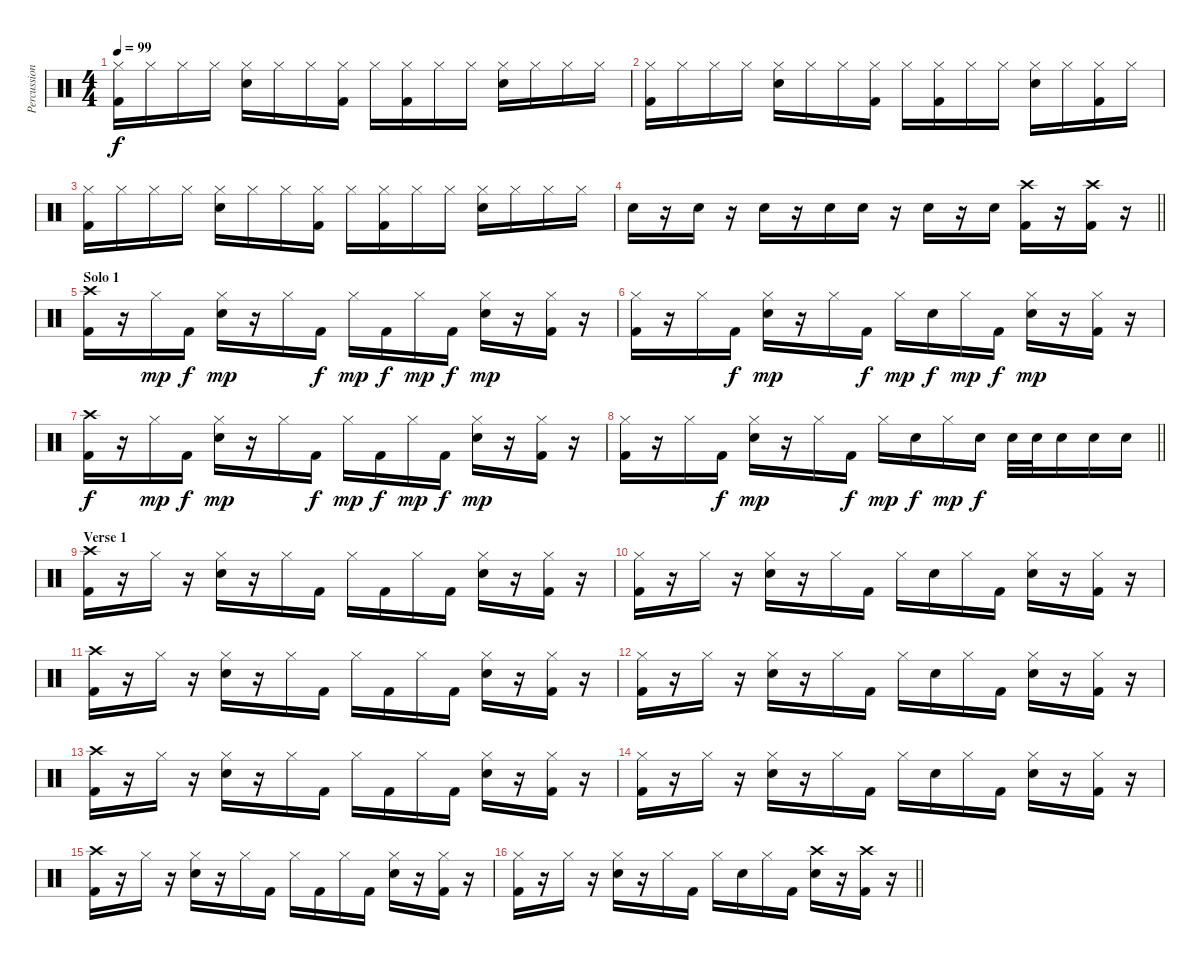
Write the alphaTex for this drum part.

\track ("Percussion" "Percussion") {instrument percussion}
\staff {score}
\articulation defaults
\ts (4 4)
\tempo 99
\clef neutral
\ks c
("Hi-Hat (closed)" "Kick (hit) 2").16{dy f} "Hi-Hat (closed)".16 "Hi-Hat (closed)".16 "Hi-Hat (closed)".16 ("Hi-Hat (closed)" "Snare (hit) 2").16 "Hi-Hat (closed)".16 "Hi-Hat (closed)".16 ("Hi-Hat (closed)" "Kick (hit) 2").16 "Hi-Hat (closed)".16 ("Hi-Hat (closed)" "Kick (hit) 2").16 "Hi-Hat (closed)".16 "Hi-Hat (closed)".16 ("Hi-Hat (closed)" "Snare (hit) 2").16 "Hi-Hat (closed)".16 "Hi-Hat (closed)".16 "Hi-Hat (closed)".16 |
("Hi-Hat (closed)" "Kick (hit) 2").16 "Hi-Hat (closed)".16 "Hi-Hat (closed)".16 "Hi-Hat (closed)".16 ("Hi-Hat (closed)" "Snare (hit) 2").16 "Hi-Hat (closed)".16 "Hi-Hat (closed)".16 ("Hi-Hat (closed)" "Kick (hit) 2").16 "Hi-Hat (closed)".16 ("Hi-Hat (closed)" "Kick (hit) 2").16 "Hi-Hat (closed)".16 "Hi-Hat (closed)".16 ("Hi-Hat (closed)" "Snare (hit) 2").16 "Hi-Hat (closed)".16 ("Hi-Hat (closed)" "Kick (hit) 2").16 "Hi-Hat (closed)".16 |
("Hi-Hat (closed)" "Kick (hit) 2").16 "Hi-Hat (closed)".16 "Hi-Hat (closed)".16 "Hi-Hat (closed)".16 ("Hi-Hat (closed)" "Snare (hit) 2").16 "Hi-Hat (closed)".16 "Hi-Hat (closed)".16 ("Hi-Hat (closed)" "Kick (hit) 2").16 "Hi-Hat (closed)".16 ("Hi-Hat (closed)" "Kick (hit) 2").16 "Hi-Hat (closed)".16 "Hi-Hat (closed)".16 ("Hi-Hat (closed)" "Snare (hit) 2").16 "Hi-Hat (closed)".16 "Hi-Hat (closed)".16 "Hi-Hat (closed)".16 |
\barLineRight lightlight "Snare (hit) 2".16
r.16 "Snare (hit) 2".16 r.16 "Snare (hit) 2".16 r.16 "Snare (hit) 2".16 "Snare (hit) 2".16 r.16 "Snare (hit) 2".16 r.16 "Snare (hit) 2".16 ("Crash high (hit)" "Kick (hit) 2").16 r.16 ("Crash high (hit)" "Kick (hit) 2").16 r.16 |
\section ("" "Solo 1")
("Crash high (hit)" "Kick (hit) 2").16 r.16 "Hi-Hat (closed)".16{dy mp} "Kick (hit) 2".16{dy f} ("Hi-Hat (closed)" "Snare (hit) 2").16{dy mp} r.16 "Hi-Hat (closed)".16 "Kick (hit) 2".16{dy f} "Hi-Hat (closed)".16{dy mp} "Kick (hit) 2".16{dy f} "Hi-Hat (closed)".16{dy mp} "Kick (hit) 2".16{dy f} ("Hi-Hat (closed)" "Snare (hit) 2").16{dy mp} r.16 ("Hi-Hat (closed)" "Kick (hit) 2").16 r.16 |
("Hi-Hat (closed)" "Kick (hit) 2").16 r.16 "Hi-Hat (closed)".16 "Kick (hit) 2".16{dy f} ("Hi-Hat (closed)" "Snare (hit) 2").16{dy mp} r.16 "Hi-Hat (closed)".16 "Kick (hit) 2".16{dy f} "Hi-Hat (closed)".16{dy mp} "Snare (hit) 2".16{dy f} "Hi-Hat (closed)".16{dy mp} "Kick (hit) 2".16{dy f} ("Hi-Hat (closed)" "Snare (hit) 2").16{dy mp} r.16 ("Hi-Hat (closed)" "Kick (hit) 2").16 r.16 |
("Crash high (hit)" "Kick (hit) 2").16{dy f} r.16 "Hi-Hat (closed)".16{dy mp} "Kick (hit) 2".16{dy f} ("Hi-Hat (closed)" "Snare (hit) 2").16{dy mp} r.16 "Hi-Hat (closed)".16 "Kick (hit) 2".16{dy f} "Hi-Hat (closed)".16{dy mp} "Kick (hit) 2".16{dy f} "Hi-Hat (closed)".16{dy mp} "Kick (hit) 2".16{dy f} ("Hi-Hat (closed)" "Snare (hit) 2").16{dy mp} r.16 ("Hi-Hat (closed)" "Kick (hit) 2").16 r.16 |
\barLineRight lightlight
("Hi-Hat (closed)" "Kick (hit) 2").16 r.16 "Hi-Hat (closed)".16 "Kick (hit) 2".16{dy f} ("Hi-Hat (closed)" "Snare (hit) 2").16{dy mp} r.16 "Hi-Hat (closed)".16 "Kick (hit) 2".16{dy f} "Hi-Hat (closed)".16{dy mp} "Snare (hit) 2".16{dy f} "Hi-Hat (closed)".16{dy mp} "Snare (hit) 2".16{dy f} "Snare (hit) 2".32 "Snare (hit) 2".32 "Snare (hit) 2".16 "Snare (hit) 2".16 "Snare (hit) 2".16 |
\section ("" "Verse 1")
("Crash high (hit)" "Kick (hit) 2").16 r.16 "Hi-Hat (closed)".16 r.16 ("Hi-Hat (closed)" "Snare (hit) 2").16 r.16 "Hi-Hat (closed)".16 "Kick (hit) 2".16 "Hi-Hat (closed)".16 "Kick (hit) 2".16 "Hi-Hat (closed)".16 "Kick (hit) 2".16 ("Hi-Hat (closed)" "Snare (hit) 2").16 r.16 ("Hi-Hat (closed)" "Kick (hit) 2").16 r.16 |
("Hi-Hat (closed)" "Kick (hit) 2").16 r.16 "Hi-Hat (closed)".16 r.16 ("Hi-Hat (closed)" "Snare (hit) 2").16 r.16 "Hi-Hat (closed)".16 "Kick (hit) 2".16 "Hi-Hat (closed)".16 "Snare (hit) 2".16 "Hi-Hat (closed)".16 "Kick (hit) 2".16 ("Hi-Hat (closed)" "Snare (hit) 2").16 r.16 ("Hi-Hat (closed)" "Kick (hit) 2").16 r.16 |
("Crash high (hit)" "Kick (hit) 2").16 r.16 "Hi-Hat (closed)".16 r.16 ("Hi-Hat (closed)" "Snare (hit) 2").16 r.16 "Hi-Hat (closed)".16 "Kick (hit) 2".16 "Hi-Hat (closed)".16 "Kick (hit) 2".16 "Hi-Hat (closed)".16 "Kick (hit) 2".16 ("Hi-Hat (closed)" "Snare (hit) 2").16 r.16 ("Hi-Hat (closed)" "Kick (hit) 2").16 r.16 |
("Hi-Hat (closed)" "Kick (hit) 2").16 r.16 "Hi-Hat (closed)".16 r.16 ("Hi-Hat (closed)" "Snare (hit) 2").16 r.16 "Hi-Hat (closed)".16 "Kick (hit) 2".16 "Hi-Hat (closed)".16 "Snare (hit) 2".16 "Hi-Hat (closed)".16 "Kick (hit) 2".16 ("Hi-Hat (closed)" "Snare (hit) 2").16 r.16 ("Hi-Hat (closed)" "Kick (hit) 2").16 r.16 |
("Crash high (hit)" "Kick (hit) 2").16 r.16 "Hi-Hat (closed)".16 r.16 ("Hi-Hat (closed)" "Snare (hit) 2").16 r.16 "Hi-Hat (closed)".16 "Kick (hit) 2".16 "Hi-Hat (closed)".16 "Kick (hit) 2".16 "Hi-Hat (closed)".16 "Kick (hit) 2".16 ("Hi-Hat (closed)" "Snare (hit) 2").16 r.16 ("Hi-Hat (closed)" "Kick (hit) 2").16 r.16 |
("Hi-Hat (closed)" "Kick (hit) 2").16 r.16 "Hi-Hat (closed)".16 r.16 ("Hi-Hat (closed)" "Snare (hit) 2").16 r.16 "Hi-Hat (closed)".16 "Kick (hit) 2".16 "Hi-Hat (closed)".16 "Snare (hit) 2".16 "Hi-Hat (closed)".16 "Kick (hit) 2".16 ("Hi-Hat (closed)" "Snare (hit) 2").16 r.16 ("Hi-Hat (closed)" "Kick (hit) 2").16 r.16 |
("Crash high (hit)" "Kick (hit) 2").16 r.16 "Hi-Hat (closed)".16 r.16 ("Hi-Hat (closed)" "Snare (hit) 2").16 r.16 "Hi-Hat (closed)".16 "Kick (hit) 2".16 "Hi-Hat (closed)".16 "Kick (hit) 2".16 "Hi-Hat (closed)".16 "Kick (hit) 2".16 ("Hi-Hat (closed)" "Snare (hit) 2").16 r.16 ("Hi-Hat (closed)" "Kick (hit) 2").16 r.16 |
\barLineRight lightlight
("Hi-Hat (closed)" "Kick (hit) 2").16 r.16 "Hi-Hat (closed)".16 r.16 ("Hi-Hat (closed)" "Snare (hit) 2").16 r.16 "Hi-Hat (closed)".16 "Kick (hit) 2".16 "Hi-Hat (closed)".16 "Snare (hit) 2".16 "Hi-Hat (closed)".16 "Kick (hit) 2".16 ("Crash high (hit)" "Snare (hit) 2").16 r.16 ("Crash high (hit)" "Kick (hit) 2").16 r.16
